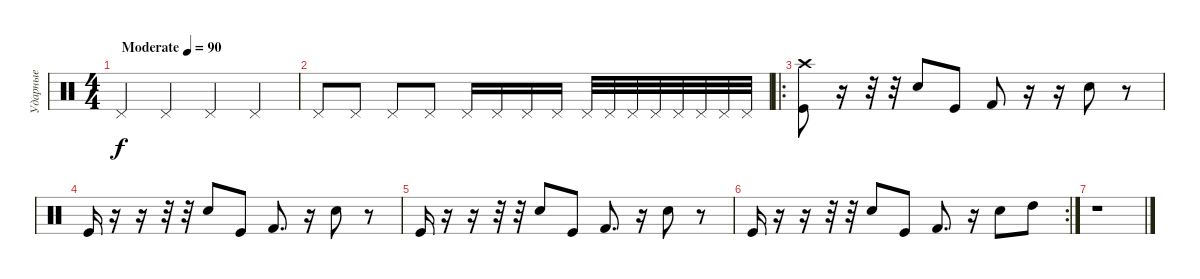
\track ("Ударные" "Ударные") {instrument percussion}
\staff {score}
\articulation defaults
\ts (4 4)
\tempo (90 "Moderate")
\clef neutral
\ks c "Pedal Hi-Hat (hit)".4{dy f} "Pedal Hi-Hat (hit)".4 "Pedal Hi-Hat (hit)".4 "Pedal Hi-Hat (hit)".4
|
"Pedal Hi-Hat (hit)".8 "Pedal Hi-Hat (hit)".8 "Pedal Hi-Hat (hit)".8 "Pedal Hi-Hat (hit)".8 "Pedal Hi-Hat (hit)".16 "Pedal Hi-Hat (hit)".16 "Pedal Hi-Hat (hit)".16 "Pedal Hi-Hat (hit)".16 "Pedal Hi-Hat (hit)".32 "Pedal Hi-Hat (hit)".32 "Pedal Hi-Hat (hit)".32 "Pedal Hi-Hat (hit)".32 "Pedal Hi-Hat (hit)".32 "Pedal Hi-Hat (hit)".32 "Pedal Hi-Hat (hit)".32 "Pedal Hi-Hat (hit)".32 |
\ro
("Crash high (hit)" "Kick (hit)").8 r.16 r.32 r.32 "Snare (hit) 2".8 "Kick (hit)".8 "Kick (hit) 2".8 r.16 r.16 "Snare (hit) 2".8 r.8 |
"Kick (hit)".16 r.16 r.16 r.32 r.32 "Snare (hit) 2".8 "Kick (hit)".8 "Kick (hit) 2".8{d} r.16 "Snare (hit) 2".8 r.8 |
"Kick (hit)".16 r.16 r.16 r.32 r.32 "Snare (hit) 2".8 "Kick (hit)".8 "Kick (hit) 2".8{d} r.16 "Snare (hit) 2".8 r.8 |
\rc 2 "Kick (hit)".16
r.16 r.16 r.32 r.32 "Snare (hit) 2".8 "Kick (hit)".8 "Kick (hit) 2".8{d} r.16 "Snare (hit) 2".8 "High Tom (hit)".8 |
r.1
